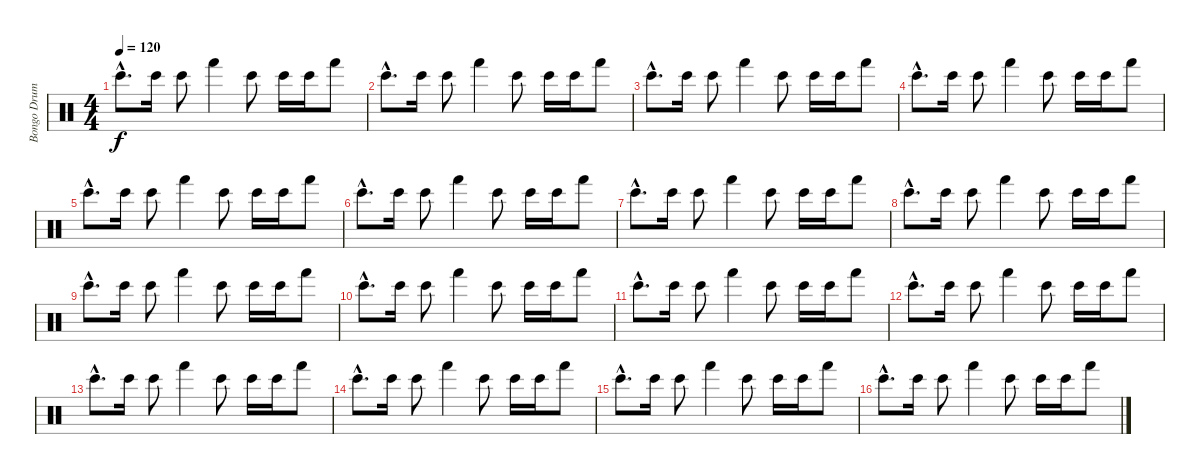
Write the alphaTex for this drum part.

\track ("Bongo Drum" "Bongo Drum") {instrument percussion}
\staff {score}
\articulation defaults
\ts (4 4)
\tempo 120
\clef neutral
\ks c "Bongo High (hit)"{hac}.8{d dy f} "Bongo High (hit)".16 "Bongo High (hit)".8 "Hand (hit)".4 "Bongo High (hit)".8 "Bongo High (hit)".16 "Bongo High (hit)".16 "Hand (hit)".8
|
"Bongo High (hit)"{hac}.8{d} "Bongo High (hit)".16 "Bongo High (hit)".8 "Hand (hit)".4 "Bongo High (hit)".8 "Bongo High (hit)".16 "Bongo High (hit)".16 "Hand (hit)".8 |
"Bongo High (hit)"{hac}.8{d} "Bongo High (hit)".16 "Bongo High (hit)".8 "Hand (hit)".4 "Bongo High (hit)".8 "Bongo High (hit)".16 "Bongo High (hit)".16 "Hand (hit)".8 |
"Bongo High (hit)"{hac}.8{d} "Bongo High (hit)".16 "Bongo High (hit)".8 "Hand (hit)".4 "Bongo High (hit)".8 "Bongo High (hit)".16 "Bongo High (hit)".16 "Hand (hit)".8 |
"Bongo High (hit)"{hac}.8{d} "Bongo High (hit)".16 "Bongo High (hit)".8 "Hand (hit)".4 "Bongo High (hit)".8 "Bongo High (hit)".16 "Bongo High (hit)".16 "Hand (hit)".8 |
"Bongo High (hit)"{hac}.8{d} "Bongo High (hit)".16 "Bongo High (hit)".8 "Hand (hit)".4 "Bongo High (hit)".8 "Bongo High (hit)".16 "Bongo High (hit)".16 "Hand (hit)".8 |
"Bongo High (hit)"{hac}.8{d} "Bongo High (hit)".16 "Bongo High (hit)".8 "Hand (hit)".4 "Bongo High (hit)".8 "Bongo High (hit)".16 "Bongo High (hit)".16 "Hand (hit)".8 |
"Bongo High (hit)"{hac}.8{d} "Bongo High (hit)".16 "Bongo High (hit)".8 "Hand (hit)".4 "Bongo High (hit)".8 "Bongo High (hit)".16 "Bongo High (hit)".16 "Hand (hit)".8 |
"Bongo High (hit)"{hac}.8{d} "Bongo High (hit)".16 "Bongo High (hit)".8 "Hand (hit)".4 "Bongo High (hit)".8 "Bongo High (hit)".16 "Bongo High (hit)".16 "Hand (hit)".8 |
"Bongo High (hit)"{hac}.8{d} "Bongo High (hit)".16 "Bongo High (hit)".8 "Hand (hit)".4 "Bongo High (hit)".8 "Bongo High (hit)".16 "Bongo High (hit)".16 "Hand (hit)".8 |
"Bongo High (hit)"{hac}.8{d} "Bongo High (hit)".16 "Bongo High (hit)".8 "Hand (hit)".4 "Bongo High (hit)".8 "Bongo High (hit)".16 "Bongo High (hit)".16 "Hand (hit)".8 |
"Bongo High (hit)"{hac}.8{d} "Bongo High (hit)".16 "Bongo High (hit)".8 "Hand (hit)".4 "Bongo High (hit)".8 "Bongo High (hit)".16 "Bongo High (hit)".16 "Hand (hit)".8 |
"Bongo High (hit)"{hac}.8{d} "Bongo High (hit)".16 "Bongo High (hit)".8 "Hand (hit)".4 "Bongo High (hit)".8 "Bongo High (hit)".16 "Bongo High (hit)".16 "Hand (hit)".8 |
"Bongo High (hit)"{hac}.8{d} "Bongo High (hit)".16 "Bongo High (hit)".8 "Hand (hit)".4 "Bongo High (hit)".8 "Bongo High (hit)".16 "Bongo High (hit)".16 "Hand (hit)".8 |
"Bongo High (hit)"{hac}.8{d} "Bongo High (hit)".16 "Bongo High (hit)".8 "Hand (hit)".4 "Bongo High (hit)".8 "Bongo High (hit)".16 "Bongo High (hit)".16 "Hand (hit)".8 |
"Bongo High (hit)"{hac}.8{d} "Bongo High (hit)".16 "Bongo High (hit)".8 "Hand (hit)".4 "Bongo High (hit)".8 "Bongo High (hit)".16 "Bongo High (hit)".16 "Hand (hit)".8
